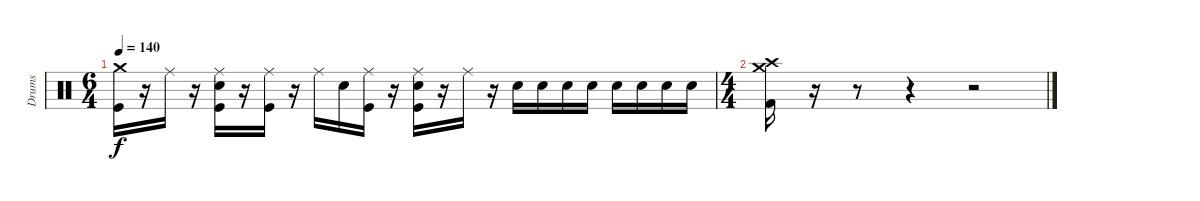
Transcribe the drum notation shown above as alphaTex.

\track ("Drums" "Drums") {instrument percussion}
\staff {score}
\articulation defaults
\ts (6 4)
\tempo 140
\clef neutral
\ks c
("Crash medium (hit)" "Kick (hit)").16{dy f} r.16 "Ride (middle)".16 r.16 ("Ride (middle)" "Electric Snare (hit)" "Kick (hit)").16 r.16 ("Ride (middle)" "Kick (hit)").16 r.16 "Ride (middle)".16 "Electric Snare (hit)".16 ("Ride (middle)" "Kick (hit)").16 r.16 ("Ride (middle)" "Electric Snare (hit)" "Kick (hit)").16 r.16 "Ride (middle)".16 r.16 "Electric Snare (hit)".16 "Electric Snare (hit)".16 "Electric Snare (hit)".16 "Electric Snare (hit)".16 "Electric Snare (hit)".16 "Electric Snare (hit)".16 "Electric Snare (hit)".16 "Electric Snare (hit)".16 |
\ts (4 4)
("Crash medium (hit)" "Crash high (hit)" "Kick (hit) 2").16 r.16 r.8 r.4 r.2
